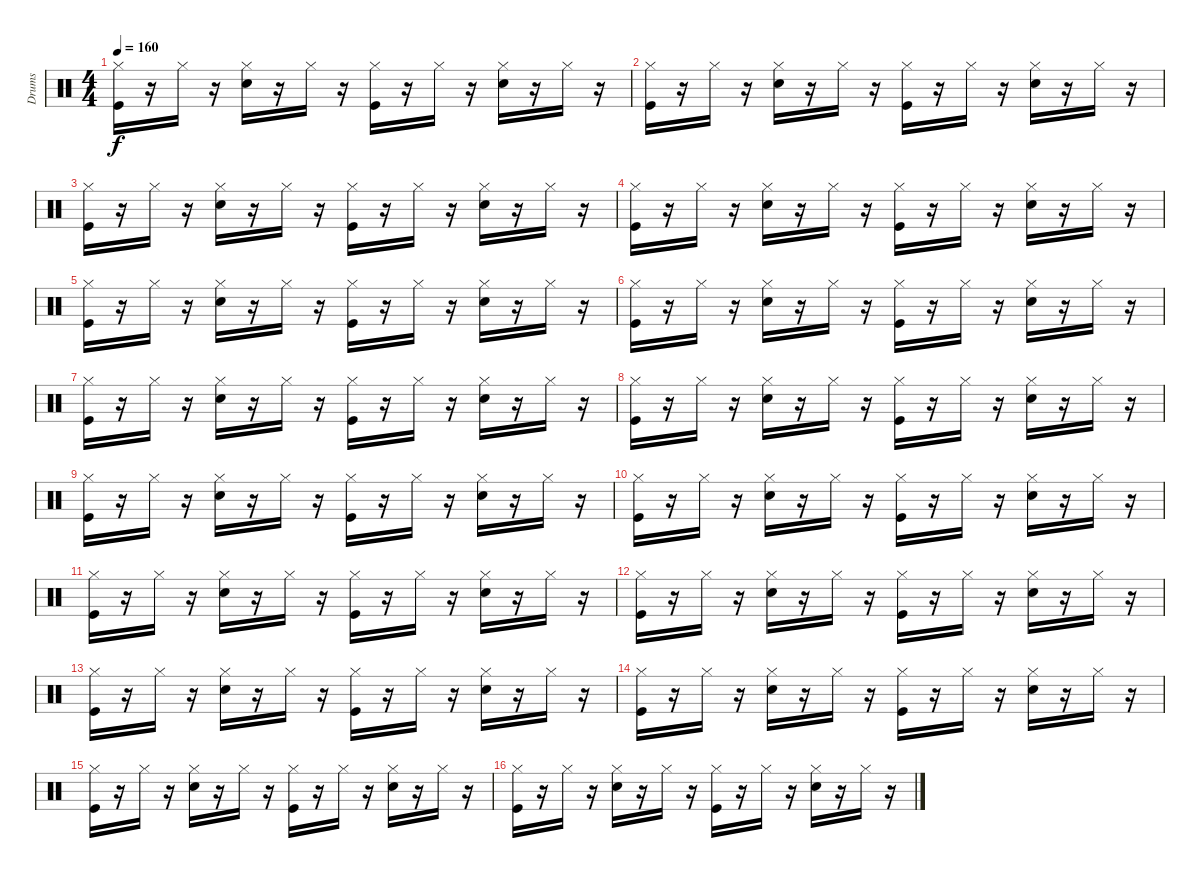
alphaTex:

\track ("Drums               " "Drums     ") {instrument percussion}
\staff {score}
\articulation defaults
\ts (4 4)
\tempo 160
\clef neutral
\ks c
("Kick (hit)" "Hi-Hat (closed)").16{dy f} r.16 "Hi-Hat (closed)".16 r.16 ("Snare (hit) 2" "Hi-Hat (closed)").16 r.16 "Hi-Hat (closed)".16 r.16 ("Kick (hit)" "Hi-Hat (closed)").16 r.16 "Hi-Hat (closed)".16 r.16 ("Snare (hit) 2" "Hi-Hat (closed)").16 r.16 "Hi-Hat (closed)".16 r.16 |
("Kick (hit)" "Hi-Hat (closed)").16 r.16 "Hi-Hat (closed)".16 r.16 ("Snare (hit) 2" "Hi-Hat (closed)").16 r.16 "Hi-Hat (closed)".16 r.16 ("Kick (hit)" "Hi-Hat (closed)").16 r.16 "Hi-Hat (closed)".16 r.16 ("Snare (hit) 2" "Hi-Hat (closed)").16 r.16 "Hi-Hat (closed)".16 r.16 |
("Kick (hit)" "Hi-Hat (closed)").16 r.16 "Hi-Hat (closed)".16 r.16 ("Snare (hit) 2" "Hi-Hat (closed)").16 r.16 "Hi-Hat (closed)".16 r.16 ("Kick (hit)" "Hi-Hat (closed)").16 r.16 "Hi-Hat (closed)".16 r.16 ("Snare (hit) 2" "Hi-Hat (closed)").16 r.16 "Hi-Hat (closed)".16 r.16 |
("Kick (hit)" "Hi-Hat (closed)").16 r.16 "Hi-Hat (closed)".16 r.16 ("Snare (hit) 2" "Hi-Hat (closed)").16 r.16 "Hi-Hat (closed)".16 r.16 ("Kick (hit)" "Hi-Hat (closed)").16 r.16 "Hi-Hat (closed)".16 r.16 ("Snare (hit) 2" "Hi-Hat (closed)").16 r.16 "Hi-Hat (closed)".16 r.16 |
("Kick (hit)" "Hi-Hat (closed)").16 r.16 "Hi-Hat (closed)".16 r.16 ("Snare (hit) 2" "Hi-Hat (closed)").16 r.16 "Hi-Hat (closed)".16 r.16 ("Kick (hit)" "Hi-Hat (closed)").16 r.16 "Hi-Hat (closed)".16 r.16 ("Snare (hit) 2" "Hi-Hat (closed)").16 r.16 "Hi-Hat (closed)".16 r.16 |
("Kick (hit)" "Hi-Hat (closed)").16 r.16 "Hi-Hat (closed)".16 r.16 ("Snare (hit) 2" "Hi-Hat (closed)").16 r.16 "Hi-Hat (closed)".16 r.16 ("Kick (hit)" "Hi-Hat (closed)").16 r.16 "Hi-Hat (closed)".16 r.16 ("Snare (hit) 2" "Hi-Hat (closed)").16 r.16 "Hi-Hat (closed)".16 r.16 |
("Kick (hit)" "Hi-Hat (closed)").16 r.16 "Hi-Hat (closed)".16 r.16 ("Snare (hit) 2" "Hi-Hat (closed)").16 r.16 "Hi-Hat (closed)".16 r.16 ("Kick (hit)" "Hi-Hat (closed)").16 r.16 "Hi-Hat (closed)".16 r.16 ("Snare (hit) 2" "Hi-Hat (closed)").16 r.16 "Hi-Hat (closed)".16 r.16 |
("Kick (hit)" "Hi-Hat (closed)").16 r.16 "Hi-Hat (closed)".16 r.16 ("Snare (hit) 2" "Hi-Hat (closed)").16 r.16 "Hi-Hat (closed)".16 r.16 ("Kick (hit)" "Hi-Hat (closed)").16 r.16 "Hi-Hat (closed)".16 r.16 ("Snare (hit) 2" "Hi-Hat (closed)").16 r.16 "Hi-Hat (closed)".16 r.16 |
("Kick (hit)" "Hi-Hat (closed)").16 r.16 "Hi-Hat (closed)".16 r.16 ("Snare (hit) 2" "Hi-Hat (closed)").16 r.16 "Hi-Hat (closed)".16 r.16 ("Kick (hit)" "Hi-Hat (closed)").16 r.16 "Hi-Hat (closed)".16 r.16 ("Snare (hit) 2" "Hi-Hat (closed)").16 r.16 "Hi-Hat (closed)".16 r.16 |
("Kick (hit)" "Hi-Hat (closed)").16 r.16 "Hi-Hat (closed)".16 r.16 ("Snare (hit) 2" "Hi-Hat (closed)").16 r.16 "Hi-Hat (closed)".16 r.16 ("Kick (hit)" "Hi-Hat (closed)").16 r.16 "Hi-Hat (closed)".16 r.16 ("Snare (hit) 2" "Hi-Hat (closed)").16 r.16 "Hi-Hat (closed)".16 r.16 |
("Kick (hit)" "Hi-Hat (closed)").16 r.16 "Hi-Hat (closed)".16 r.16 ("Snare (hit) 2" "Hi-Hat (closed)").16 r.16 "Hi-Hat (closed)".16 r.16 ("Kick (hit)" "Hi-Hat (closed)").16 r.16 "Hi-Hat (closed)".16 r.16 ("Snare (hit) 2" "Hi-Hat (closed)").16 r.16 "Hi-Hat (closed)".16 r.16 |
("Kick (hit)" "Hi-Hat (closed)").16 r.16 "Hi-Hat (closed)".16 r.16 ("Snare (hit) 2" "Hi-Hat (closed)").16 r.16 "Hi-Hat (closed)".16 r.16 ("Kick (hit)" "Hi-Hat (closed)").16 r.16 "Hi-Hat (closed)".16 r.16 ("Snare (hit) 2" "Hi-Hat (closed)").16 r.16 "Hi-Hat (closed)".16 r.16 |
("Kick (hit)" "Hi-Hat (closed)").16 r.16 "Hi-Hat (closed)".16 r.16 ("Snare (hit) 2" "Hi-Hat (closed)").16 r.16 "Hi-Hat (closed)".16 r.16 ("Kick (hit)" "Hi-Hat (closed)").16 r.16 "Hi-Hat (closed)".16 r.16 ("Snare (hit) 2" "Hi-Hat (closed)").16 r.16 "Hi-Hat (closed)".16 r.16 |
("Kick (hit)" "Hi-Hat (closed)").16 r.16 "Hi-Hat (closed)".16 r.16 ("Snare (hit) 2" "Hi-Hat (closed)").16 r.16 "Hi-Hat (closed)".16 r.16 ("Kick (hit)" "Hi-Hat (closed)").16 r.16 "Hi-Hat (closed)".16 r.16 ("Snare (hit) 2" "Hi-Hat (closed)").16 r.16 "Hi-Hat (closed)".16 r.16 |
("Kick (hit)" "Hi-Hat (closed)").16 r.16 "Hi-Hat (closed)".16 r.16 ("Snare (hit) 2" "Hi-Hat (closed)").16 r.16 "Hi-Hat (closed)".16 r.16 ("Kick (hit)" "Hi-Hat (closed)").16 r.16 "Hi-Hat (closed)".16 r.16 ("Snare (hit) 2" "Hi-Hat (closed)").16 r.16 "Hi-Hat (closed)".16 r.16 |
("Kick (hit)" "Hi-Hat (closed)").16 r.16 "Hi-Hat (closed)".16 r.16 ("Snare (hit) 2" "Hi-Hat (closed)").16 r.16 "Hi-Hat (closed)".16 r.16 ("Kick (hit)" "Hi-Hat (closed)").16 r.16 "Hi-Hat (closed)".16 r.16 ("Snare (hit) 2" "Hi-Hat (closed)").16 r.16 "Hi-Hat (closed)".16 r.16
